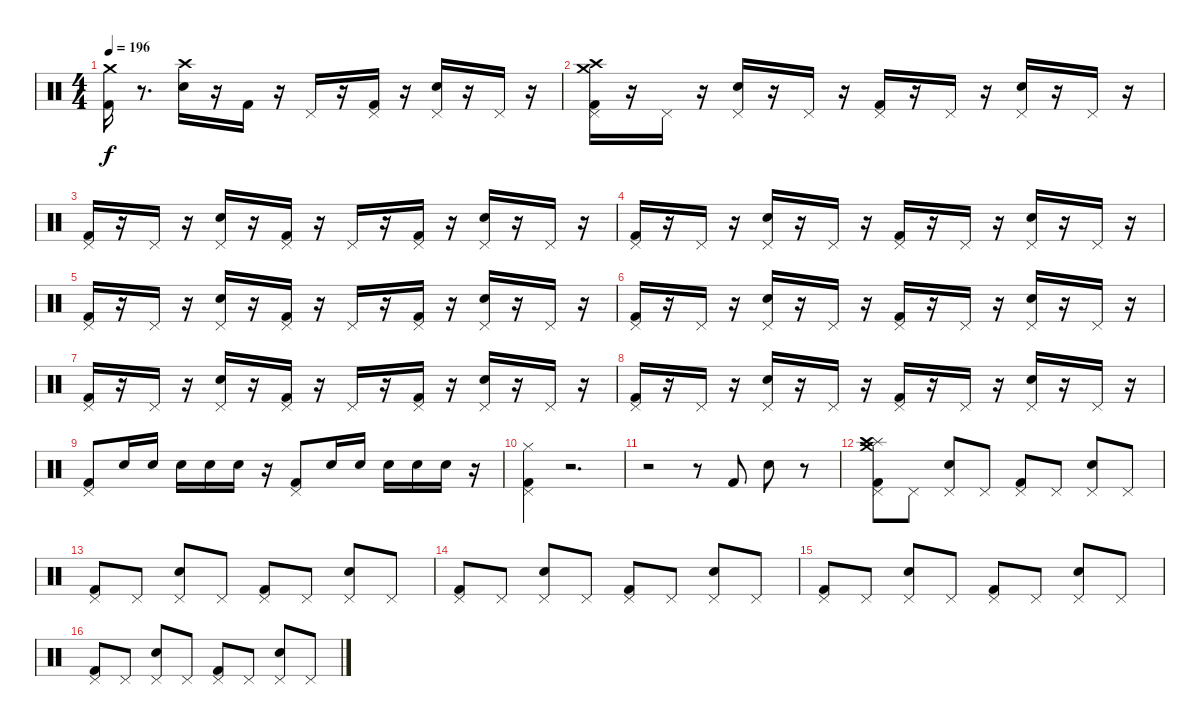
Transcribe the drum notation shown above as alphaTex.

\track "" {instrument percussion}
\staff {score}
\articulation defaults
\ts (4 4)
\tempo 196
\clef neutral
\ks c
("Crash medium (hit)" "Kick (hit) 2").16{dy f} r.8{d} ("Crash high (hit)" "Electric Snare (hit)").16 r.16 "Kick (hit) 2".16 r.16 "Pedal Hi-Hat (hit)".16 r.16 ("Kick (hit) 2" "Pedal Hi-Hat (hit)").16 r.16 ("Electric Snare (hit)" "Pedal Hi-Hat (hit)").16 r.16 "Pedal Hi-Hat (hit)".16 r.16 |
("Crash medium (hit)" "Crash high (hit)" "Pedal Hi-Hat (hit)" "Kick (hit) 2").16 r.16 "Pedal Hi-Hat (hit)".16 r.16 ("Pedal Hi-Hat (hit)" "Electric Snare (hit)").16 r.16 "Pedal Hi-Hat (hit)".16 r.16 ("Pedal Hi-Hat (hit)" "Kick (hit) 2").16 r.16 "Pedal Hi-Hat (hit)".16 r.16 ("Pedal Hi-Hat (hit)" "Electric Snare (hit)").16 r.16 "Pedal Hi-Hat (hit)".16 r.16 |
("Pedal Hi-Hat (hit)" "Kick (hit) 2").16 r.16 "Pedal Hi-Hat (hit)".16 r.16 ("Pedal Hi-Hat (hit)" "Electric Snare (hit)").16 r.16 ("Pedal Hi-Hat (hit)" "Kick (hit) 2").16 r.16 "Pedal Hi-Hat (hit)".16 r.16 ("Pedal Hi-Hat (hit)" "Kick (hit) 2").16 r.16 ("Pedal Hi-Hat (hit)" "Electric Snare (hit)").16 r.16 "Pedal Hi-Hat (hit)".16 r.16 |
("Pedal Hi-Hat (hit)" "Kick (hit) 2").16 r.16 "Pedal Hi-Hat (hit)".16 r.16 ("Pedal Hi-Hat (hit)" "Electric Snare (hit)").16 r.16 "Pedal Hi-Hat (hit)".16 r.16 ("Pedal Hi-Hat (hit)" "Kick (hit) 2").16 r.16 "Pedal Hi-Hat (hit)".16 r.16 ("Pedal Hi-Hat (hit)" "Electric Snare (hit)").16 r.16 "Pedal Hi-Hat (hit)".16 r.16 |
("Pedal Hi-Hat (hit)" "Kick (hit) 2").16 r.16 "Pedal Hi-Hat (hit)".16 r.16 ("Pedal Hi-Hat (hit)" "Electric Snare (hit)").16 r.16 ("Pedal Hi-Hat (hit)" "Kick (hit) 2").16 r.16 "Pedal Hi-Hat (hit)".16 r.16 ("Pedal Hi-Hat (hit)" "Kick (hit) 2").16 r.16 ("Pedal Hi-Hat (hit)" "Electric Snare (hit)").16 r.16 "Pedal Hi-Hat (hit)".16 r.16 |
("Pedal Hi-Hat (hit)" "Kick (hit) 2").16 r.16 "Pedal Hi-Hat (hit)".16 r.16 ("Pedal Hi-Hat (hit)" "Electric Snare (hit)").16 r.16 "Pedal Hi-Hat (hit)".16 r.16 ("Pedal Hi-Hat (hit)" "Kick (hit) 2").16 r.16 "Pedal Hi-Hat (hit)".16 r.16 ("Pedal Hi-Hat (hit)" "Electric Snare (hit)").16 r.16 "Pedal Hi-Hat (hit)".16 r.16 |
("Pedal Hi-Hat (hit)" "Kick (hit) 2").16 r.16 "Pedal Hi-Hat (hit)".16 r.16 ("Pedal Hi-Hat (hit)" "Electric Snare (hit)").16 r.16 ("Pedal Hi-Hat (hit)" "Kick (hit) 2").16 r.16 "Pedal Hi-Hat (hit)".16 r.16 ("Pedal Hi-Hat (hit)" "Kick (hit) 2").16 r.16 ("Pedal Hi-Hat (hit)" "Electric Snare (hit)").16 r.16 "Pedal Hi-Hat (hit)".16 r.16 |
("Pedal Hi-Hat (hit)" "Kick (hit) 2").16 r.16 "Pedal Hi-Hat (hit)".16 r.16 ("Pedal Hi-Hat (hit)" "Electric Snare (hit)").16 r.16 "Pedal Hi-Hat (hit)".16 r.16 ("Pedal Hi-Hat (hit)" "Kick (hit) 2").16 r.16 "Pedal Hi-Hat (hit)".16 r.16 ("Pedal Hi-Hat (hit)" "Electric Snare (hit)").16 r.16 "Pedal Hi-Hat (hit)".16 r.16 |
("Pedal Hi-Hat (hit)" "Kick (hit) 2").8 "Electric Snare (hit)".16 "Electric Snare (hit)".16 "Electric Snare (hit)".16 "Electric Snare (hit)".16 "Electric Snare (hit)".16 r.16 ("Pedal Hi-Hat (hit)" "Kick (hit) 2").8 "Electric Snare (hit)".16 "Electric Snare (hit)".16 "Electric Snare (hit)".16 "Electric Snare (hit)".16 "Electric Snare (hit)".16 r.16 |
("Kick (hit) 2" "Hi-Hat (closed)" "Pedal Hi-Hat (hit)").4 r.2{d} |
r.2 r.8 "Kick (hit) 2".8 "Electric Snare (hit)".8 r.8 |
("Pedal Hi-Hat (hit)" "Splash (hit)" "Crash medium (hit)" "Crash high (hit)" "Kick (hit) 2").8 "Pedal Hi-Hat (hit)".8 ("Electric Snare (hit)" "Pedal Hi-Hat (hit)").8 "Pedal Hi-Hat (hit)".8 ("Kick (hit) 2" "Pedal Hi-Hat (hit)").8 "Pedal Hi-Hat (hit)".8 ("Electric Snare (hit)" "Pedal Hi-Hat (hit)").8 "Pedal Hi-Hat (hit)".8 |
("Pedal Hi-Hat (hit)" "Kick (hit) 2").8 "Pedal Hi-Hat (hit)".8 ("Electric Snare (hit)" "Pedal Hi-Hat (hit)").8 "Pedal Hi-Hat (hit)".8 ("Kick (hit) 2" "Pedal Hi-Hat (hit)").8 "Pedal Hi-Hat (hit)".8 ("Pedal Hi-Hat (hit)" "Electric Snare (hit)").8 "Pedal Hi-Hat (hit)".8 |
("Pedal Hi-Hat (hit)" "Kick (hit) 2").8 "Pedal Hi-Hat (hit)".8 ("Electric Snare (hit)" "Pedal Hi-Hat (hit)").8 "Pedal Hi-Hat (hit)".8 ("Kick (hit) 2" "Pedal Hi-Hat (hit)").8 "Pedal Hi-Hat (hit)".8 ("Pedal Hi-Hat (hit)" "Electric Snare (hit)").8 "Pedal Hi-Hat (hit)".8 |
("Pedal Hi-Hat (hit)" "Kick (hit) 2").8 "Pedal Hi-Hat (hit)".8 ("Electric Snare (hit)" "Pedal Hi-Hat (hit)").8 "Pedal Hi-Hat (hit)".8 ("Kick (hit) 2" "Pedal Hi-Hat (hit)").8 "Pedal Hi-Hat (hit)".8 ("Pedal Hi-Hat (hit)" "Electric Snare (hit)").8 "Pedal Hi-Hat (hit)".8 |
("Pedal Hi-Hat (hit)" "Kick (hit) 2").8 "Pedal Hi-Hat (hit)".8 ("Electric Snare (hit)" "Pedal Hi-Hat (hit)").8 "Pedal Hi-Hat (hit)".8 ("Kick (hit) 2" "Pedal Hi-Hat (hit)").8 "Pedal Hi-Hat (hit)".8 ("Pedal Hi-Hat (hit)" "Electric Snare (hit)").8 "Pedal Hi-Hat (hit)".8
